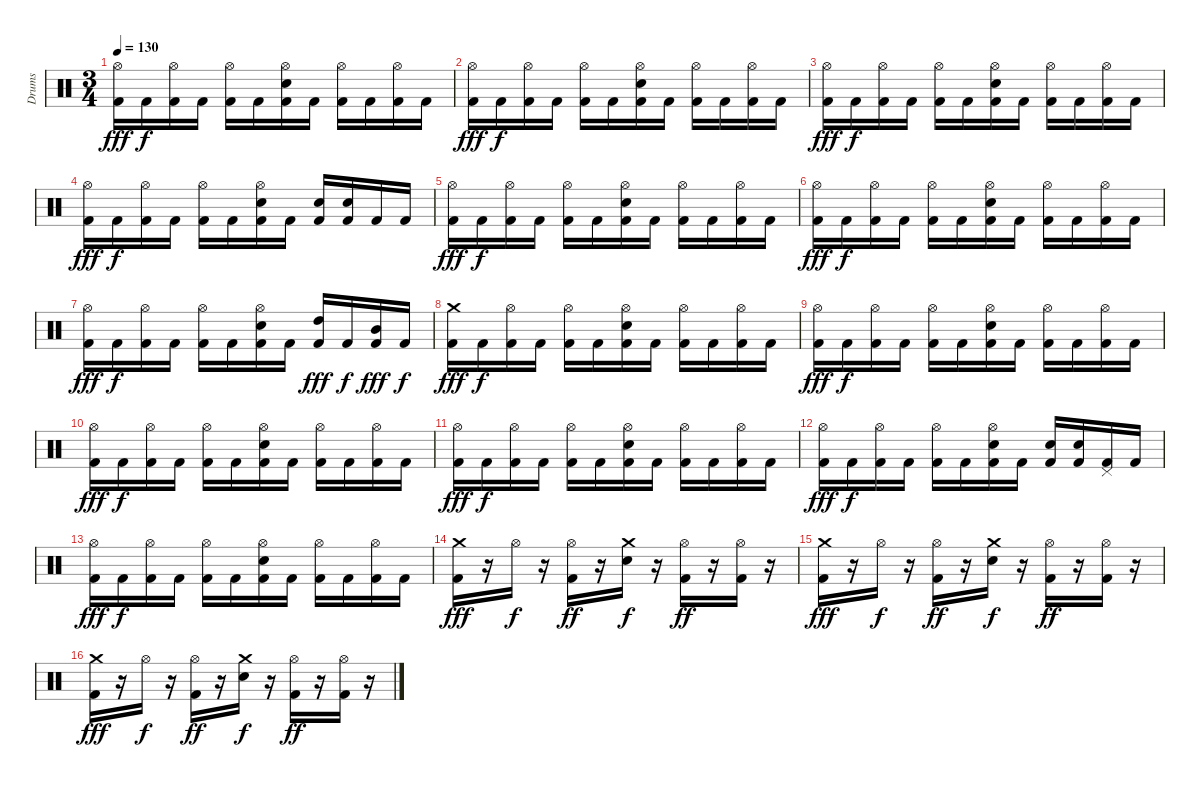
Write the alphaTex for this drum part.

\track ("Drums" "Drums") {instrument percussion}
\staff {score}
\articulation defaults
\ts (3 4)
\tempo 130
\clef neutral
\ks c
("Kick (hit) 2" "Hi-Hat (open)").16{dy fff} "Kick (hit) 2".16{dy f} ("Kick (hit) 2" "Hi-Hat (open)").16 "Kick (hit) 2".16 ("Kick (hit) 2" "Hi-Hat (open)").16 "Kick (hit) 2".16 ("Kick (hit) 2" "Electric Snare (hit)" "Hi-Hat (open)").16 "Kick (hit) 2".16 ("Kick (hit) 2" "Hi-Hat (open)").16 "Kick (hit) 2".16 ("Kick (hit) 2" "Hi-Hat (open)").16 "Kick (hit) 2".16 |
("Kick (hit) 2" "Hi-Hat (open)").16{dy fff} "Kick (hit) 2".16{dy f} ("Kick (hit) 2" "Hi-Hat (open)").16 "Kick (hit) 2".16 ("Kick (hit) 2" "Hi-Hat (open)").16 "Kick (hit) 2".16 ("Kick (hit) 2" "Electric Snare (hit)" "Hi-Hat (open)").16 "Kick (hit) 2".16 ("Kick (hit) 2" "Hi-Hat (open)").16 "Kick (hit) 2".16 ("Kick (hit) 2" "Hi-Hat (open)").16 "Kick (hit) 2".16 |
("Kick (hit) 2" "Hi-Hat (open)").16{dy fff} "Kick (hit) 2".16{dy f} ("Kick (hit) 2" "Hi-Hat (open)").16 "Kick (hit) 2".16 ("Kick (hit) 2" "Hi-Hat (open)").16 "Kick (hit) 2".16 ("Kick (hit) 2" "Electric Snare (hit)" "Hi-Hat (open)").16 "Kick (hit) 2".16 ("Kick (hit) 2" "Hi-Hat (open)").16 "Kick (hit) 2".16 ("Kick (hit) 2" "Hi-Hat (open)").16 "Kick (hit) 2".16 |
("Kick (hit) 2" "Hi-Hat (open)").16{dy fff} "Kick (hit) 2".16{dy f} ("Kick (hit) 2" "Hi-Hat (open)").16 "Kick (hit) 2".16 ("Kick (hit) 2" "Hi-Hat (open)").16 "Kick (hit) 2".16 ("Kick (hit) 2" "Electric Snare (hit)" "Hi-Hat (open)").16 "Kick (hit) 2".16 ("Kick (hit) 2" "Electric Snare (hit)").16 ("Kick (hit) 2" "Electric Snare (hit)").16 "Kick (hit) 2".16 "Kick (hit) 2".16 |
("Kick (hit) 2" "Hi-Hat (open)").16{dy fff} "Kick (hit) 2".16{dy f} ("Kick (hit) 2" "Hi-Hat (open)").16 "Kick (hit) 2".16 ("Kick (hit) 2" "Hi-Hat (open)").16 "Kick (hit) 2".16 ("Kick (hit) 2" "Electric Snare (hit)" "Hi-Hat (open)").16 "Kick (hit) 2".16 ("Kick (hit) 2" "Hi-Hat (open)").16 "Kick (hit) 2".16 ("Kick (hit) 2" "Hi-Hat (open)").16 "Kick (hit) 2".16 |
("Kick (hit) 2" "Hi-Hat (open)").16{dy fff} "Kick (hit) 2".16{dy f} ("Kick (hit) 2" "Hi-Hat (open)").16 "Kick (hit) 2".16 ("Kick (hit) 2" "Hi-Hat (open)").16 "Kick (hit) 2".16 ("Kick (hit) 2" "Electric Snare (hit)" "Hi-Hat (open)").16 "Kick (hit) 2".16 ("Kick (hit) 2" "Hi-Hat (open)").16 "Kick (hit) 2".16 ("Kick (hit) 2" "Hi-Hat (open)").16 "Kick (hit) 2".16 |
("Kick (hit) 2" "Hi-Hat (open)").16{dy fff} "Kick (hit) 2".16{dy f} ("Kick (hit) 2" "Hi-Hat (open)").16 "Kick (hit) 2".16 ("Kick (hit) 2" "Hi-Hat (open)").16 "Kick (hit) 2".16 ("Kick (hit) 2" "Electric Snare (hit)" "Hi-Hat (open)").16 "Kick (hit) 2".16 ("Kick (hit) 2" "High Tom (hit)").16{dy fff} "Kick (hit) 2".16{dy f} ("Kick (hit) 2" "Mid Tom (hit)").16{dy fff} "Kick (hit) 2".16{dy f} |
("Kick (hit) 2" "Crash medium (hit)").16{dy fff} "Kick (hit) 2".16{dy f} ("Kick (hit) 2" "Hi-Hat (open)").16 "Kick (hit) 2".16 ("Kick (hit) 2" "Hi-Hat (open)").16 "Kick (hit) 2".16 ("Kick (hit) 2" "Electric Snare (hit)" "Hi-Hat (open)").16 "Kick (hit) 2".16 ("Kick (hit) 2" "Hi-Hat (open)").16 "Kick (hit) 2".16 ("Kick (hit) 2" "Hi-Hat (open)").16 "Kick (hit) 2".16 |
("Kick (hit) 2" "Hi-Hat (open)").16{dy fff} "Kick (hit) 2".16{dy f} ("Kick (hit) 2" "Hi-Hat (open)").16 "Kick (hit) 2".16 ("Kick (hit) 2" "Hi-Hat (open)").16 "Kick (hit) 2".16 ("Kick (hit) 2" "Electric Snare (hit)" "Hi-Hat (open)").16 "Kick (hit) 2".16 ("Kick (hit) 2" "Hi-Hat (open)").16 "Kick (hit) 2".16 ("Kick (hit) 2" "Hi-Hat (open)").16 "Kick (hit) 2".16 |
("Kick (hit) 2" "Hi-Hat (open)").16{dy fff} "Kick (hit) 2".16{dy f} ("Kick (hit) 2" "Hi-Hat (open)").16 "Kick (hit) 2".16 ("Kick (hit) 2" "Hi-Hat (open)").16 "Kick (hit) 2".16 ("Kick (hit) 2" "Electric Snare (hit)" "Hi-Hat (open)").16 "Kick (hit) 2".16 ("Kick (hit) 2" "Hi-Hat (open)").16 "Kick (hit) 2".16 ("Kick (hit) 2" "Hi-Hat (open)").16 "Kick (hit) 2".16 |
("Kick (hit) 2" "Hi-Hat (open)").16{dy fff} "Kick (hit) 2".16{dy f} ("Kick (hit) 2" "Hi-Hat (open)").16 "Kick (hit) 2".16 ("Kick (hit) 2" "Hi-Hat (open)").16 "Kick (hit) 2".16 ("Kick (hit) 2" "Electric Snare (hit)" "Hi-Hat (open)").16 "Kick (hit) 2".16 ("Kick (hit) 2" "Hi-Hat (open)").16 "Kick (hit) 2".16 ("Kick (hit) 2" "Hi-Hat (open)").16 "Kick (hit) 2".16 |
("Kick (hit) 2" "Hi-Hat (open)").16{dy fff} "Kick (hit) 2".16{dy f} ("Kick (hit) 2" "Hi-Hat (open)").16 "Kick (hit) 2".16 ("Kick (hit) 2" "Hi-Hat (open)").16 "Kick (hit) 2".16 ("Kick (hit) 2" "Electric Snare (hit)" "Hi-Hat (open)").16 "Kick (hit) 2".16 ("Kick (hit) 2" "Electric Snare (hit)").16 ("Kick (hit) 2" "Electric Snare (hit)").16 ("Kick (hit) 2" "Pedal Hi-Hat (hit)").16 "Kick (hit) 2".16 |
("Kick (hit) 2" "Hi-Hat (open)").16{dy fff} "Kick (hit) 2".16{dy f} ("Kick (hit) 2" "Hi-Hat (open)").16 "Kick (hit) 2".16 ("Kick (hit) 2" "Hi-Hat (open)").16 "Kick (hit) 2".16 ("Kick (hit) 2" "Electric Snare (hit)" "Hi-Hat (open)").16 "Kick (hit) 2".16 ("Kick (hit) 2" "Hi-Hat (open)").16 "Kick (hit) 2".16 ("Kick (hit) 2" "Hi-Hat (open)").16 "Kick (hit) 2".16 |
("Kick (hit) 2" "Crash medium (hit)").16{dy fff} r.16 "Hi-Hat (open)".16{dy f} r.16 ("Kick (hit) 2" "Hi-Hat (open)").16{dy ff} r.16 ("Electric Snare (hit)" "Crash medium (hit)").16{dy f} r.16 ("Kick (hit) 2" "Hi-Hat (open)").16{dy ff} r.16 ("Kick (hit) 2" "Hi-Hat (open)").16 r.16 |
("Kick (hit) 2" "Crash medium (hit)").16{dy fff} r.16 "Hi-Hat (open)".16{dy f} r.16 ("Kick (hit) 2" "Hi-Hat (open)").16{dy ff} r.16 ("Electric Snare (hit)" "Crash medium (hit)").16{dy f} r.16 ("Kick (hit) 2" "Hi-Hat (open)").16{dy ff} r.16 ("Kick (hit) 2" "Hi-Hat (open)").16 r.16 |
("Kick (hit) 2" "Crash medium (hit)").16{dy fff} r.16 "Hi-Hat (open)".16{dy f} r.16 ("Kick (hit) 2" "Hi-Hat (open)").16{dy ff} r.16 ("Electric Snare (hit)" "Crash medium (hit)").16{dy f} r.16 ("Kick (hit) 2" "Hi-Hat (open)").16{dy ff} r.16 ("Kick (hit) 2" "Hi-Hat (open)").16 r.16
